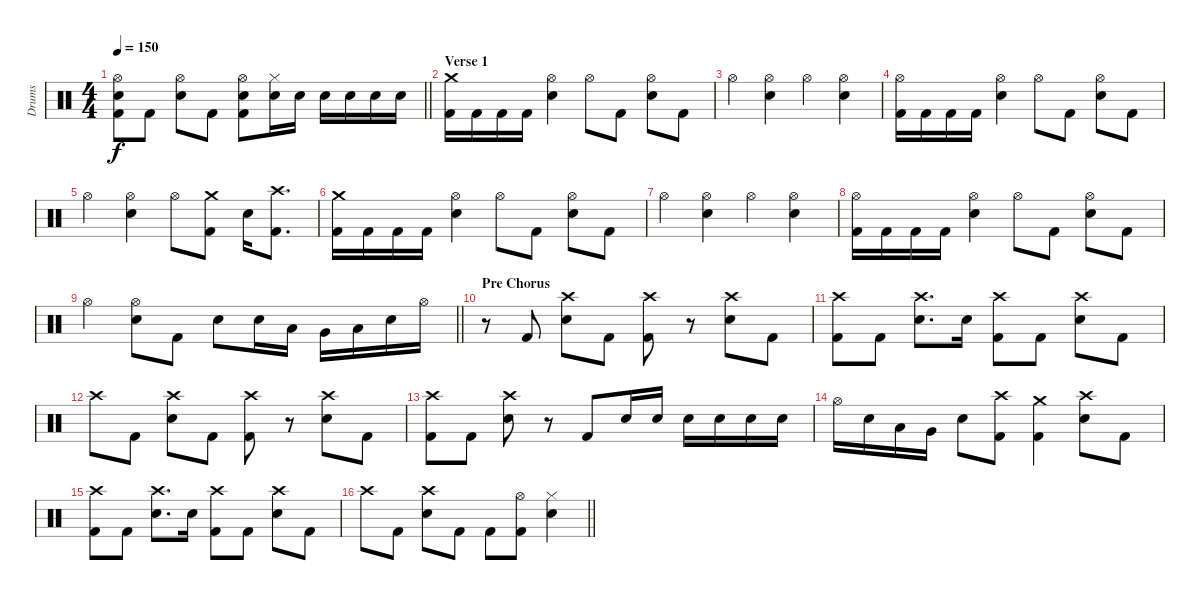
\track ("Drums" "Drums") {instrument percussion}
\staff {score}
\articulation defaults
\ts (4 4)
\tempo 150
\clef neutral
\barLineRight lightlight
\ks c
("Hi-Hat (open)" "Electric Snare (hit)" "Kick (hit) 2").8{dy f} "Kick (hit) 2".8 ("Hi-Hat (open)" "Electric Snare (hit)").8 "Kick (hit) 2".8 ("Hi-Hat (open)" "Electric Snare (hit)" "Kick (hit) 2").8 ("Hi-Hat (closed)" "Electric Snare (hit)").16 "Electric Snare (hit)".16 "Electric Snare (hit)".16 "Electric Snare (hit)".16 "Electric Snare (hit)".16 "Electric Snare (hit)".16 |
\section ("" "Verse 1")
("Crash medium (hit)" "Kick (hit) 2").16 "Kick (hit) 2".16 "Kick (hit) 2".16 "Kick (hit) 2".16 ("Hi-Hat (open)" "Electric Snare (hit)").4 "Hi-Hat (open)".8 "Kick (hit) 2".8 ("Hi-Hat (open)" "Electric Snare (hit)").8 "Kick (hit) 2".8 |
"Hi-Hat (open)".4 ("Hi-Hat (open)" "Electric Snare (hit)").4 "Hi-Hat (open)".4 ("Hi-Hat (open)" "Electric Snare (hit)").4 |
("Hi-Hat (open)" "Kick (hit) 2").16 "Kick (hit) 2".16 "Kick (hit) 2".16 "Kick (hit) 2".16 ("Hi-Hat (open)" "Electric Snare (hit)").4 "Hi-Hat (open)".8 "Kick (hit) 2".8 ("Hi-Hat (open)" "Electric Snare (hit)").8 "Kick (hit) 2".8 |
"Hi-Hat (open)".4 ("Hi-Hat (open)" "Electric Snare (hit)").4 "Hi-Hat (open)".8 ("Crash medium (hit)" "Kick (hit) 2").8 "Electric Snare (hit)".16 ("Crash high (hit)" "Kick (hit) 2").8{d} |
("Crash medium (hit)" "Kick (hit) 2").16 "Kick (hit) 2".16 "Kick (hit) 2".16 "Kick (hit) 2".16 ("Hi-Hat (open)" "Electric Snare (hit)").4 "Hi-Hat (open)".8 "Kick (hit) 2".8 ("Hi-Hat (open)" "Electric Snare (hit)").8 "Kick (hit) 2".8 |
"Hi-Hat (open)".4 ("Hi-Hat (open)" "Electric Snare (hit)").4 "Hi-Hat (open)".4 ("Hi-Hat (open)" "Electric Snare (hit)").4 |
("Hi-Hat (open)" "Kick (hit) 2").16 "Kick (hit) 2".16 "Kick (hit) 2".16 "Kick (hit) 2".16 ("Hi-Hat (open)" "Electric Snare (hit)").4 "Hi-Hat (open)".8 "Kick (hit) 2".8 ("Hi-Hat (open)" "Electric Snare (hit)").8 "Kick (hit) 2".8 |
\barLineRight lightlight "Hi-Hat (open)".4
("Hi-Hat (open)" "Electric Snare (hit)").8 "Kick (hit) 2".8 "Electric Snare (hit)".8 "Electric Snare (hit)".16 "Low Tom (hit)".16 "Very Low Tom (hit)".16 "Low Tom (hit)".16 "Electric Snare (hit)".16 "Hi-Hat (open)".16 |
\section ("" "Pre Chorus")
r.8 "Kick (hit) 2".8 ("Crash high (hit)" "Electric Snare (hit)").8 "Kick (hit) 2".8 ("Crash high (hit)" "Kick (hit) 2").8 r.8 ("Crash high (hit)" "Electric Snare (hit)").8 "Kick (hit) 2".8 |
("Crash high (hit)" "Kick (hit) 2").8 "Kick (hit) 2".8 ("Crash high (hit)" "Electric Snare (hit)").8{d} "Electric Snare (hit)".16 ("Crash high (hit)" "Kick (hit) 2").8 "Kick (hit) 2".8 ("Crash high (hit)" "Electric Snare (hit)").8 "Kick (hit) 2".8 |
"Crash high (hit)".8 "Kick (hit) 2".8 ("Crash high (hit)" "Electric Snare (hit)").8 "Kick (hit) 2".8 ("Crash high (hit)" "Kick (hit) 2").8 r.8 ("Crash high (hit)" "Electric Snare (hit)").8 "Kick (hit) 2".8 |
("Crash high (hit)" "Kick (hit) 2").8 "Kick (hit) 2".8 ("Crash high (hit)" "Electric Snare (hit)").8 r.8 "Kick (hit) 2".8 "Electric Snare (hit)".16 "Electric Snare (hit)".16 "Electric Snare (hit)".16 "Electric Snare (hit)".16 "Electric Snare (hit)".16 "Electric Snare (hit)".16 |
"Hi-Hat (open)".16 "Electric Snare (hit)".16 "Low Tom (hit)".16 "Very Low Tom (hit)".16 "Electric Snare (hit)".8 ("Crash high (hit)" "Kick (hit) 2").8 ("Crash medium (hit)" "Kick (hit) 2").4 ("Crash high (hit)" "Electric Snare (hit)").8 "Kick (hit) 2".8 |
("Crash high (hit)" "Kick (hit) 2").8 "Kick (hit) 2".8 ("Crash high (hit)" "Electric Snare (hit)").8{d} "Electric Snare (hit)".16 ("Crash high (hit)" "Kick (hit) 2").8 "Kick (hit) 2".8 ("Crash high (hit)" "Electric Snare (hit)").8 "Kick (hit) 2".8 |
\barLineRight lightlight "Crash high (hit)".8 "Kick (hit) 2".8
("Crash high (hit)" "Electric Snare (hit)").8 "Kick (hit) 2".8 "Kick (hit) 2".8 ("Hi-Hat (open)" "Kick (hit) 2").8 ("Hi-Hat (closed)" "Electric Snare (hit)").4
